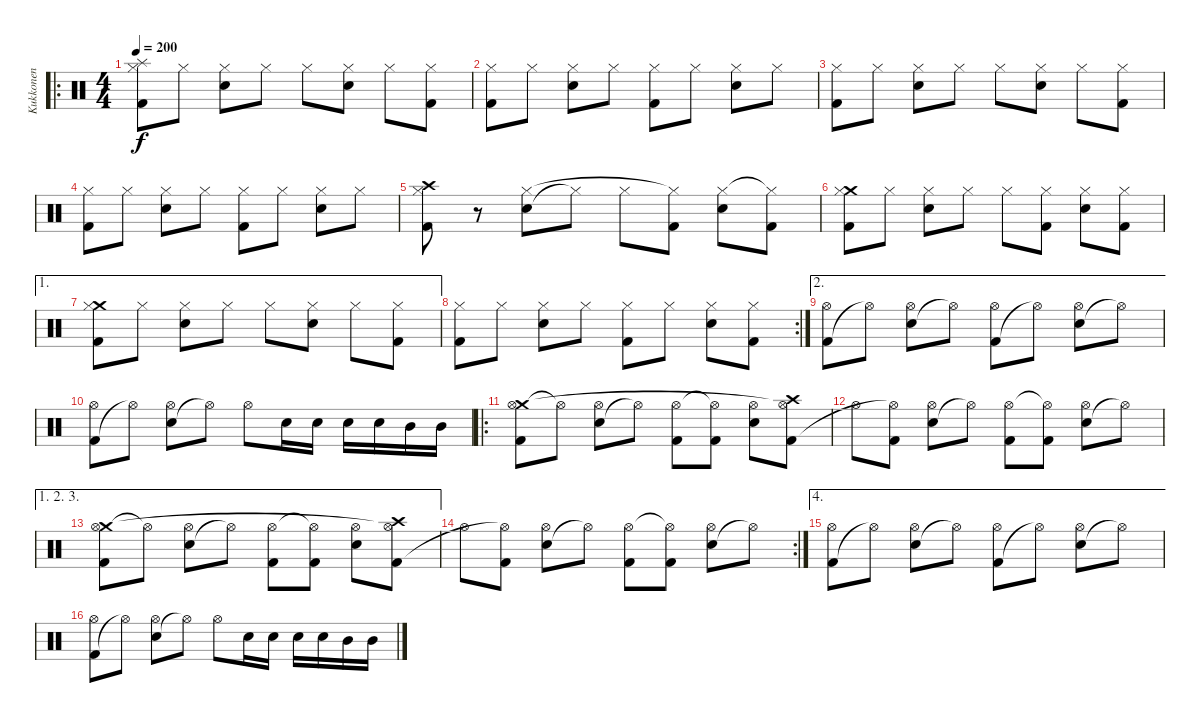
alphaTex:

\track ("Kukkonen" "Kukkonen") {instrument percussion}
\staff {score}
\articulation defaults
\ro
\ts (4 4)
\tempo 200
\clef neutral
\ks c
("Splash (hit)" "Kick (hit) 2" "Hi-Hat (closed)").8{dy f} "Hi-Hat (closed)".8 ("Electric Snare (hit)" "Hi-Hat (closed)").8 "Hi-Hat (closed)".8 "Hi-Hat (closed)".8 ("Electric Snare (hit)" "Hi-Hat (closed)").8 "Hi-Hat (closed)".8 ("Kick (hit) 2" "Hi-Hat (closed)").8 |
("Kick (hit) 2" "Hi-Hat (closed)").8 "Hi-Hat (closed)".8 ("Electric Snare (hit)" "Hi-Hat (closed)").8 "Hi-Hat (closed)".8 ("Kick (hit) 2" "Hi-Hat (closed)").8 "Hi-Hat (closed)".8 ("Electric Snare (hit)" "Hi-Hat (closed)").8 "Hi-Hat (closed)".8 |
("Kick (hit) 2" "Hi-Hat (closed)").8 "Hi-Hat (closed)".8 ("Electric Snare (hit)" "Hi-Hat (closed)").8 "Hi-Hat (closed)".8 "Hi-Hat (closed)".8 ("Electric Snare (hit)" "Hi-Hat (closed)").8 "Hi-Hat (closed)".8 ("Kick (hit) 2" "Hi-Hat (closed)").8 |
("Kick (hit) 2" "Hi-Hat (closed)").8 "Hi-Hat (closed)".8 ("Electric Snare (hit)" "Hi-Hat (closed)").8 "Hi-Hat (closed)".8 ("Kick (hit) 2" "Hi-Hat (closed)").8 "Hi-Hat (closed)".8 ("Electric Snare (hit)" "Hi-Hat (closed)").8 "Hi-Hat (closed)".8 |
("Crash high (hit)" "Kick (hit) 2" "Hi-Hat (closed)").8 r.8 ("Electric Snare (hit)" "Hi-Hat (closed)").8 "Hi-Hat (closed)"{t}.8 "Hi-Hat (closed)".8 ("Kick (hit) 2" "Hi-Hat (closed)"{t}).8 ("Electric Snare (hit)" "Hi-Hat (closed)").8 ("Kick (hit) 2" "Hi-Hat (closed)"{t}).8 |
("Crash medium (hit)" "Kick (hit) 2" "Hi-Hat (closed)").8 "Hi-Hat (closed)".8 ("Electric Snare (hit)" "Hi-Hat (closed)").8 "Hi-Hat (closed)".8 "Hi-Hat (closed)".8 ("Kick (hit) 2" "Hi-Hat (closed)").8 ("Electric Snare (hit)" "Hi-Hat (closed)").8 ("Kick (hit) 2" "Hi-Hat (closed)").8 |
\ae 1
("Crash medium (hit)" "Kick (hit) 2" "Hi-Hat (closed)").8 "Hi-Hat (closed)".8 ("Electric Snare (hit)" "Hi-Hat (closed)").8 "Hi-Hat (closed)".8 "Hi-Hat (closed)".8 ("Electric Snare (hit)" "Hi-Hat (closed)").8 "Hi-Hat (closed)".8 ("Kick (hit) 2" "Hi-Hat (closed)").8 |
\rc 2
("Kick (hit) 2" "Hi-Hat (closed)").8 "Hi-Hat (closed)".8 ("Electric Snare (hit)" "Hi-Hat (closed)").8 "Hi-Hat (closed)".8 ("Kick (hit) 2" "Hi-Hat (closed)").8 "Hi-Hat (closed)".8 ("Electric Snare (hit)" "Hi-Hat (closed)").8 ("Kick (hit) 2" "Hi-Hat (closed)").8 |
\ae 2
("Kick (hit) 2" "Hi-Hat (open)").8 "Hi-Hat (open)"{t}.8 ("Electric Snare (hit)" "Hi-Hat (open)").8 "Hi-Hat (open)"{t}.8 ("Kick (hit) 2" "Hi-Hat (open)").8 "Hi-Hat (open)"{t}.8 ("Electric Snare (hit)" "Hi-Hat (open)").8 "Hi-Hat (open)"{t}.8 |
("Kick (hit) 2" "Hi-Hat (open)").8 "Hi-Hat (open)"{t}.8 ("Electric Snare (hit)" "Hi-Hat (open)").8 "Hi-Hat (open)"{t}.8 "Hi-Hat (open)".8 "Electric Snare (hit)".16 "Electric Snare (hit)".16 "Electric Snare (hit)".16 "Electric Snare (hit)".16 "Mid Tom (hit)".16 "Mid Tom (hit)".16 |
\ro
("Crash medium (hit)" "Kick (hit) 2" "Hi-Hat (open)").8 "Hi-Hat (open)"{t}.8 ("Electric Snare (hit)" "Hi-Hat (open)").8 "Hi-Hat (open)"{t}.8 ("Kick (hit) 2" "Hi-Hat (open)").8 ("Kick (hit) 2" "Hi-Hat (open)"{t}).8 ("Electric Snare (hit)" "Hi-Hat (open)").8 ("Crash high (hit)" "Kick (hit) 2" "Hi-Hat (open)"{t}).8 |
"Hi-Hat (open)".8 ("Kick (hit) 2" "Hi-Hat (open)"{t}).8 ("Electric Snare (hit)" "Hi-Hat (open)").8 "Hi-Hat (open)"{t}.8 ("Kick (hit) 2" "Hi-Hat (open)").8 ("Kick (hit) 2" "Hi-Hat (open)"{t}).8 ("Electric Snare (hit)" "Hi-Hat (open)").8 "Hi-Hat (open)"{t}.8 |
\ae (1 2 3)
("Crash medium (hit)" "Kick (hit) 2" "Hi-Hat (open)").8 "Hi-Hat (open)"{t}.8 ("Electric Snare (hit)" "Hi-Hat (open)").8 "Hi-Hat (open)"{t}.8 ("Kick (hit) 2" "Hi-Hat (open)").8 ("Kick (hit) 2" "Hi-Hat (open)"{t}).8 ("Electric Snare (hit)" "Hi-Hat (open)").8 ("Crash high (hit)" "Kick (hit) 2" "Hi-Hat (open)"{t}).8 |
\rc 2 "Hi-Hat (open)".8
("Kick (hit) 2" "Hi-Hat (open)"{t}).8 ("Electric Snare (hit)" "Hi-Hat (open)").8 "Hi-Hat (open)"{t}.8 ("Kick (hit) 2" "Hi-Hat (open)").8 ("Kick (hit) 2" "Hi-Hat (open)"{t}).8 ("Electric Snare (hit)" "Hi-Hat (open)").8 "Hi-Hat (open)"{t}.8 |
\ae 4
("Kick (hit) 2" "Hi-Hat (open)").8 "Hi-Hat (open)"{t}.8 ("Electric Snare (hit)" "Hi-Hat (open)").8 "Hi-Hat (open)"{t}.8 ("Kick (hit) 2" "Hi-Hat (open)").8 "Hi-Hat (open)"{t}.8 ("Electric Snare (hit)" "Hi-Hat (open)").8 "Hi-Hat (open)"{t}.8 |
("Kick (hit) 2" "Hi-Hat (open)").8 "Hi-Hat (open)"{t}.8 ("Electric Snare (hit)" "Hi-Hat (open)").8 "Hi-Hat (open)"{t}.8 "Hi-Hat (open)".8 "Electric Snare (hit)".16 "Electric Snare (hit)".16 "Electric Snare (hit)".16 "Electric Snare (hit)".16 "Mid Tom (hit)".16 "Mid Tom (hit)".16
